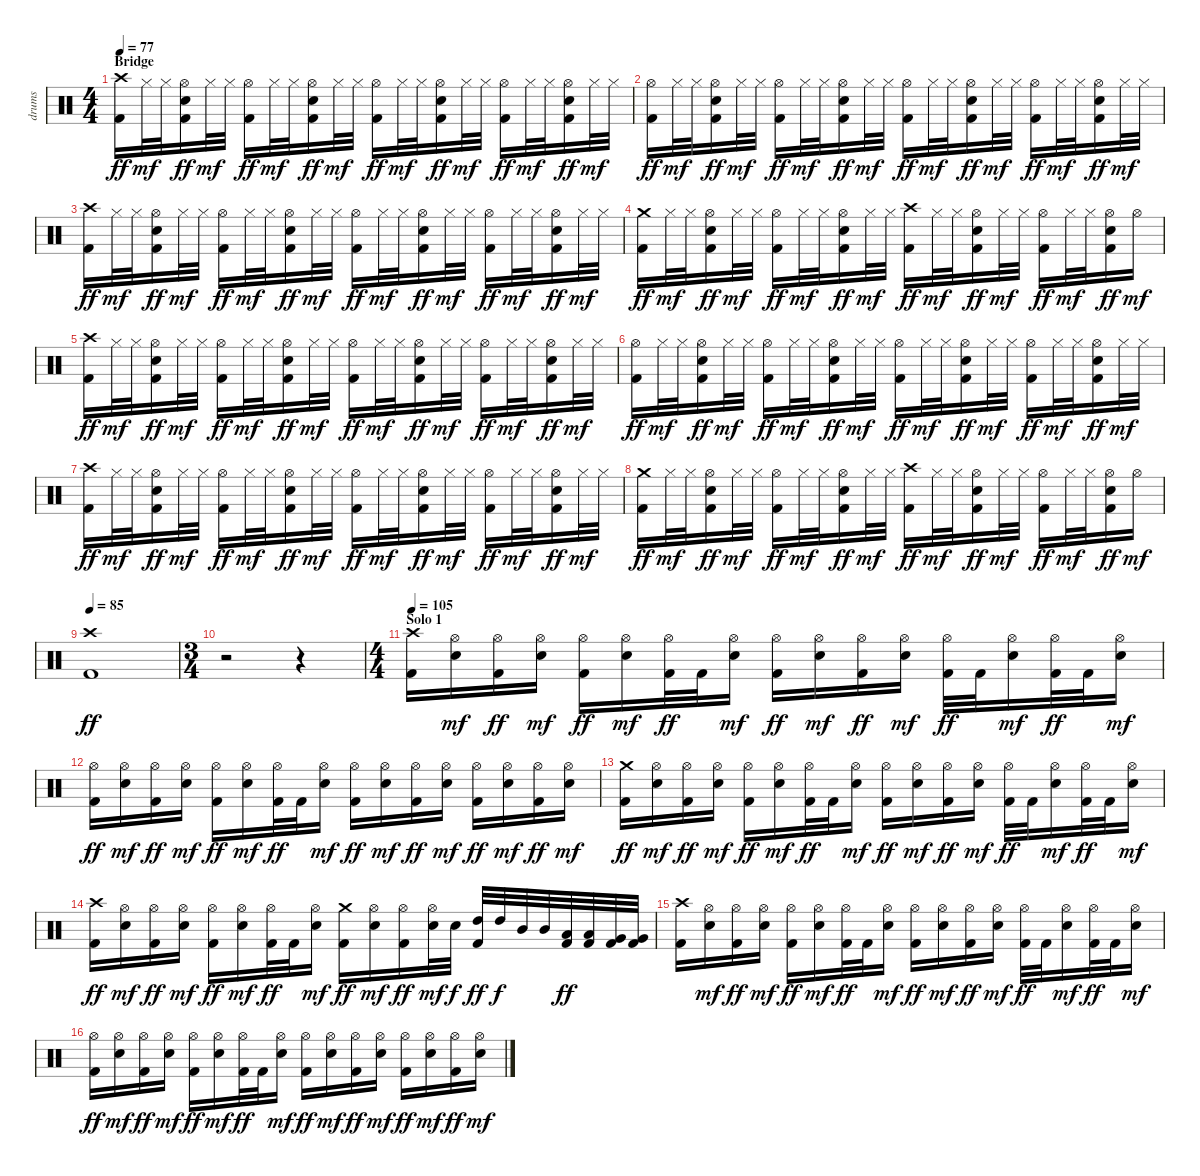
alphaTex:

\track ("drums" "drums") {instrument percussion}
\staff {score}
\articulation defaults
\ts (4 4)
\section ("" "Bridge")
\tempo 77
\clef neutral
\ks c
("Crash high (hit)" "Kick (hit) 2").16{dy ff} "Hi-Hat (closed)".32{dy mf} "Hi-Hat (closed)".32 ("Hi-Hat (open)" "Snare (hit) 2" "Kick (hit) 2").16{dy ff} "Hi-Hat (closed)".32{dy mf} "Hi-Hat (closed)".32 ("Hi-Hat (open)" "Kick (hit) 2").16{dy ff} "Hi-Hat (closed)".32{dy mf} "Hi-Hat (closed)".32 ("Hi-Hat (open)" "Snare (hit) 2" "Kick (hit) 2").16{dy ff} "Hi-Hat (closed)".32{dy mf} "Hi-Hat (closed)".32 ("Hi-Hat (open)" "Kick (hit) 2").16{dy ff} "Hi-Hat (closed)".32{dy mf} "Hi-Hat (closed)".32 ("Hi-Hat (open)" "Snare (hit) 2" "Kick (hit) 2").16{dy ff} "Hi-Hat (closed)".32{dy mf} "Hi-Hat (closed)".32 ("Hi-Hat (open)" "Kick (hit) 2").16{dy ff} "Hi-Hat (closed)".32{dy mf} "Hi-Hat (closed)".32 ("Hi-Hat (open)" "Snare (hit) 2" "Kick (hit) 2").16{dy ff} "Hi-Hat (closed)".32{dy mf} "Hi-Hat (closed)".32 |
("Hi-Hat (open)" "Kick (hit) 2").16{dy ff} "Hi-Hat (closed)".32{dy mf} "Hi-Hat (closed)".32 ("Hi-Hat (open)" "Snare (hit) 2" "Kick (hit) 2").16{dy ff} "Hi-Hat (closed)".32{dy mf} "Hi-Hat (closed)".32 ("Hi-Hat (open)" "Kick (hit) 2").16{dy ff} "Hi-Hat (closed)".32{dy mf} "Hi-Hat (closed)".32 ("Hi-Hat (open)" "Snare (hit) 2" "Kick (hit) 2").16{dy ff} "Hi-Hat (closed)".32{dy mf} "Hi-Hat (closed)".32 ("Hi-Hat (open)" "Kick (hit) 2").16{dy ff} "Hi-Hat (closed)".32{dy mf} "Hi-Hat (closed)".32 ("Hi-Hat (open)" "Snare (hit) 2" "Kick (hit) 2").16{dy ff} "Hi-Hat (closed)".32{dy mf} "Hi-Hat (closed)".32 ("Hi-Hat (open)" "Kick (hit) 2").16{dy ff} "Hi-Hat (closed)".32{dy mf} "Hi-Hat (closed)".32 ("Hi-Hat (open)" "Snare (hit) 2" "Kick (hit) 2").16{dy ff} "Hi-Hat (closed)".32{dy mf} "Hi-Hat (closed)".32 |
("Crash high (hit)" "Kick (hit) 2").16{dy ff} "Hi-Hat (closed)".32{dy mf} "Hi-Hat (closed)".32 ("Hi-Hat (open)" "Snare (hit) 2" "Kick (hit) 2").16{dy ff} "Hi-Hat (closed)".32{dy mf} "Hi-Hat (closed)".32 ("Hi-Hat (open)" "Kick (hit) 2").16{dy ff} "Hi-Hat (closed)".32{dy mf} "Hi-Hat (closed)".32 ("Hi-Hat (open)" "Snare (hit) 2" "Kick (hit) 2").16{dy ff} "Hi-Hat (closed)".32{dy mf} "Hi-Hat (closed)".32 ("Hi-Hat (open)" "Kick (hit) 2").16{dy ff} "Hi-Hat (closed)".32{dy mf} "Hi-Hat (closed)".32 ("Hi-Hat (open)" "Snare (hit) 2" "Kick (hit) 2").16{dy ff} "Hi-Hat (closed)".32{dy mf} "Hi-Hat (closed)".32 ("Hi-Hat (open)" "Kick (hit) 2").16{dy ff} "Hi-Hat (closed)".32{dy mf} "Hi-Hat (closed)".32 ("Hi-Hat (open)" "Snare (hit) 2" "Kick (hit) 2").16{dy ff} "Hi-Hat (closed)".32{dy mf} "Hi-Hat (closed)".32 |
("Crash medium (hit)" "Kick (hit) 2").16{dy ff} "Hi-Hat (closed)".32{dy mf} "Hi-Hat (closed)".32 ("Hi-Hat (open)" "Snare (hit) 2" "Kick (hit) 2").16{dy ff} "Hi-Hat (closed)".32{dy mf} "Hi-Hat (closed)".32 ("Hi-Hat (open)" "Kick (hit) 2").16{dy ff} "Hi-Hat (closed)".32{dy mf} "Hi-Hat (closed)".32 ("Hi-Hat (open)" "Snare (hit) 2" "Kick (hit) 2").16{dy ff} "Hi-Hat (closed)".32{dy mf} "Hi-Hat (closed)".32 ("Crash high (hit)" "Kick (hit) 2").16{dy ff} "Hi-Hat (closed)".32{dy mf} "Hi-Hat (closed)".32 ("Hi-Hat (open)" "Snare (hit) 2" "Kick (hit) 2").16{dy ff} "Hi-Hat (closed)".32{dy mf} "Hi-Hat (closed)".32 ("Hi-Hat (open)" "Kick (hit) 2").16{dy ff} "Hi-Hat (closed)".32{dy mf} "Hi-Hat (closed)".32 ("Hi-Hat (open)" "Snare (hit) 2" "Kick (hit) 2").16{dy ff} "Hi-Hat (open)".16{dy mf} |
("Crash high (hit)" "Kick (hit) 2").16{dy ff} "Hi-Hat (closed)".32{dy mf} "Hi-Hat (closed)".32 ("Hi-Hat (open)" "Snare (hit) 2" "Kick (hit) 2").16{dy ff} "Hi-Hat (closed)".32{dy mf} "Hi-Hat (closed)".32 ("Hi-Hat (open)" "Kick (hit) 2").16{dy ff} "Hi-Hat (closed)".32{dy mf} "Hi-Hat (closed)".32 ("Hi-Hat (open)" "Snare (hit) 2" "Kick (hit) 2").16{dy ff} "Hi-Hat (closed)".32{dy mf} "Hi-Hat (closed)".32 ("Hi-Hat (open)" "Kick (hit) 2").16{dy ff} "Hi-Hat (closed)".32{dy mf} "Hi-Hat (closed)".32 ("Hi-Hat (open)" "Snare (hit) 2" "Kick (hit) 2").16{dy ff} "Hi-Hat (closed)".32{dy mf} "Hi-Hat (closed)".32 ("Hi-Hat (open)" "Kick (hit) 2").16{dy ff} "Hi-Hat (closed)".32{dy mf} "Hi-Hat (closed)".32 ("Hi-Hat (open)" "Snare (hit) 2" "Kick (hit) 2").16{dy ff} "Hi-Hat (closed)".32{dy mf} "Hi-Hat (closed)".32 |
("Hi-Hat (open)" "Kick (hit) 2").16{dy ff} "Hi-Hat (closed)".32{dy mf} "Hi-Hat (closed)".32 ("Hi-Hat (open)" "Snare (hit) 2" "Kick (hit) 2").16{dy ff} "Hi-Hat (closed)".32{dy mf} "Hi-Hat (closed)".32 ("Hi-Hat (open)" "Kick (hit) 2").16{dy ff} "Hi-Hat (closed)".32{dy mf} "Hi-Hat (closed)".32 ("Hi-Hat (open)" "Snare (hit) 2" "Kick (hit) 2").16{dy ff} "Hi-Hat (closed)".32{dy mf} "Hi-Hat (closed)".32 ("Hi-Hat (open)" "Kick (hit) 2").16{dy ff} "Hi-Hat (closed)".32{dy mf} "Hi-Hat (closed)".32 ("Hi-Hat (open)" "Snare (hit) 2" "Kick (hit) 2").16{dy ff} "Hi-Hat (closed)".32{dy mf} "Hi-Hat (closed)".32 ("Hi-Hat (open)" "Kick (hit) 2").16{dy ff} "Hi-Hat (closed)".32{dy mf} "Hi-Hat (closed)".32 ("Hi-Hat (open)" "Snare (hit) 2" "Kick (hit) 2").16{dy ff} "Hi-Hat (closed)".32{dy mf} "Hi-Hat (closed)".32 |
("Crash high (hit)" "Kick (hit) 2").16{dy ff} "Hi-Hat (closed)".32{dy mf} "Hi-Hat (closed)".32 ("Hi-Hat (open)" "Snare (hit) 2" "Kick (hit) 2").16{dy ff} "Hi-Hat (closed)".32{dy mf} "Hi-Hat (closed)".32 ("Hi-Hat (open)" "Kick (hit) 2").16{dy ff} "Hi-Hat (closed)".32{dy mf} "Hi-Hat (closed)".32 ("Hi-Hat (open)" "Snare (hit) 2" "Kick (hit) 2").16{dy ff} "Hi-Hat (closed)".32{dy mf} "Hi-Hat (closed)".32 ("Hi-Hat (open)" "Kick (hit) 2").16{dy ff} "Hi-Hat (closed)".32{dy mf} "Hi-Hat (closed)".32 ("Hi-Hat (open)" "Snare (hit) 2" "Kick (hit) 2").16{dy ff} "Hi-Hat (closed)".32{dy mf} "Hi-Hat (closed)".32 ("Hi-Hat (open)" "Kick (hit) 2").16{dy ff} "Hi-Hat (closed)".32{dy mf} "Hi-Hat (closed)".32 ("Hi-Hat (open)" "Snare (hit) 2" "Kick (hit) 2").16{dy ff} "Hi-Hat (closed)".32{dy mf} "Hi-Hat (closed)".32 |
("Crash medium (hit)" "Kick (hit) 2").16{dy ff} "Hi-Hat (closed)".32{dy mf} "Hi-Hat (closed)".32 ("Hi-Hat (open)" "Snare (hit) 2" "Kick (hit) 2").16{dy ff} "Hi-Hat (closed)".32{dy mf} "Hi-Hat (closed)".32 ("Hi-Hat (open)" "Kick (hit) 2").16{dy ff} "Hi-Hat (closed)".32{dy mf} "Hi-Hat (closed)".32 ("Hi-Hat (open)" "Snare (hit) 2" "Kick (hit) 2").16{dy ff} "Hi-Hat (closed)".32{dy mf} "Hi-Hat (closed)".32 ("Crash high (hit)" "Kick (hit) 2").16{dy ff} "Hi-Hat (closed)".32{dy mf} "Hi-Hat (closed)".32 ("Hi-Hat (open)" "Snare (hit) 2" "Kick (hit) 2").16{dy ff} "Hi-Hat (closed)".32{dy mf} "Hi-Hat (closed)".32 ("Hi-Hat (open)" "Kick (hit) 2").16{dy ff} "Hi-Hat (closed)".32{dy mf} "Hi-Hat (closed)".32 ("Hi-Hat (open)" "Snare (hit) 2" "Kick (hit) 2").16{dy ff} "Hi-Hat (open)".16{dy mf} |
\tempo 85
("Crash high (hit)" "Kick (hit) 2").1{dy ff} |
\ts (3 4)
r.2 r.4 |
\ts (4 4)
\section ("" "Solo 1")
\tempo 105
("Crash high (hit)" "Kick (hit) 2").16 ("Hi-Hat (open)" "Snare (hit) 2").16{dy mf} ("Hi-Hat (open)" "Kick (hit) 2").16{dy ff} ("Hi-Hat (open)" "Snare (hit) 2").16{dy mf} ("Hi-Hat (open)" "Kick (hit) 2").16{dy ff} ("Hi-Hat (open)" "Snare (hit) 2").16{dy mf} ("Hi-Hat (open)" "Kick (hit) 2").32{dy ff} "Kick (hit) 2".32 ("Hi-Hat (open)" "Snare (hit) 2").16{dy mf} ("Hi-Hat (open)" "Kick (hit) 2").16{dy ff} ("Hi-Hat (open)" "Snare (hit) 2").16{dy mf} ("Hi-Hat (open)" "Kick (hit) 2").16{dy ff} ("Hi-Hat (open)" "Snare (hit) 2").16{dy mf} ("Hi-Hat (open)" "Kick (hit) 2").32{dy ff} "Kick (hit) 2".32 ("Hi-Hat (open)" "Snare (hit) 2").16{dy mf} ("Hi-Hat (open)" "Kick (hit) 2").32{dy ff} "Kick (hit) 2".32 ("Hi-Hat (open)" "Snare (hit) 2").16{dy mf} |
("Hi-Hat (open)" "Kick (hit) 2").16{dy ff} ("Hi-Hat (open)" "Snare (hit) 2").16{dy mf} ("Hi-Hat (open)" "Kick (hit) 2").16{dy ff} ("Hi-Hat (open)" "Snare (hit) 2").16{dy mf} ("Hi-Hat (open)" "Kick (hit) 2").16{dy ff} ("Hi-Hat (open)" "Snare (hit) 2").16{dy mf} ("Hi-Hat (open)" "Kick (hit) 2").32{dy ff} "Kick (hit) 2".32 ("Hi-Hat (open)" "Snare (hit) 2").16{dy mf} ("Hi-Hat (open)" "Kick (hit) 2").16{dy ff} ("Hi-Hat (open)" "Snare (hit) 2").16{dy mf} ("Hi-Hat (open)" "Kick (hit) 2").16{dy ff} ("Hi-Hat (open)" "Snare (hit) 2").16{dy mf} ("Hi-Hat (open)" "Kick (hit) 2").16{dy ff} ("Hi-Hat (open)" "Snare (hit) 2").16{dy mf} ("Hi-Hat (open)" "Kick (hit) 2").16{dy ff} ("Hi-Hat (open)" "Snare (hit) 2").16{dy mf} |
("Crash medium (hit)" "Kick (hit) 2").16{dy ff} ("Hi-Hat (open)" "Snare (hit) 2").16{dy mf} ("Hi-Hat (open)" "Kick (hit) 2").16{dy ff} ("Hi-Hat (open)" "Snare (hit) 2").16{dy mf} ("Hi-Hat (open)" "Kick (hit) 2").16{dy ff} ("Hi-Hat (open)" "Snare (hit) 2").16{dy mf} ("Hi-Hat (open)" "Kick (hit) 2").32{dy ff} "Kick (hit) 2".32 ("Hi-Hat (open)" "Snare (hit) 2").16{dy mf} ("Hi-Hat (open)" "Kick (hit) 2").16{dy ff} ("Hi-Hat (open)" "Snare (hit) 2").16{dy mf} ("Hi-Hat (open)" "Kick (hit) 2").16{dy ff} ("Hi-Hat (open)" "Snare (hit) 2").16{dy mf} ("Hi-Hat (open)" "Kick (hit) 2").32{dy ff} "Kick (hit) 2".32 ("Hi-Hat (open)" "Snare (hit) 2").16{dy mf} ("Hi-Hat (open)" "Kick (hit) 2").32{dy ff} "Kick (hit) 2".32 ("Hi-Hat (open)" "Snare (hit) 2").16{dy mf} |
("Crash high (hit)" "Kick (hit) 2").16{dy ff} ("Hi-Hat (open)" "Snare (hit) 2").16{dy mf} ("Hi-Hat (open)" "Kick (hit) 2").16{dy ff} ("Hi-Hat (open)" "Snare (hit) 2").16{dy mf} ("Hi-Hat (open)" "Kick (hit) 2").16{dy ff} ("Hi-Hat (open)" "Snare (hit) 2").16{dy mf} ("Hi-Hat (open)" "Kick (hit) 2").32{dy ff} "Kick (hit) 2".32 ("Hi-Hat (open)" "Snare (hit) 2").16{dy mf} ("Crash medium (hit)" "Kick (hit) 2").16{dy ff} ("Hi-Hat (open)" "Snare (hit) 2").16{dy mf} ("Hi-Hat (open)" "Kick (hit) 2").16{dy ff} ("Hi-Hat (open)" "Snare (hit) 2").32{dy mf} "Snare (hit) 2".32{dy f} ("High Tom (hit)" "Kick (hit) 2").32{dy ff} "High Tom (hit)".32{dy f} "Mid Tom (hit)".32 "Mid Tom (hit)".32 ("Low Tom (hit)" "Kick (hit) 2").32{dy ff} ("Low Tom (hit)" "Kick (hit) 2").32 ("Very Low Tom (hit)" "Kick (hit) 2").32 ("Very Low Tom (hit)" "Kick (hit) 2").32 |
("Crash high (hit)" "Kick (hit) 2").16 ("Hi-Hat (open)" "Snare (hit) 2").16{dy mf} ("Hi-Hat (open)" "Kick (hit) 2").16{dy ff} ("Hi-Hat (open)" "Snare (hit) 2").16{dy mf} ("Hi-Hat (open)" "Kick (hit) 2").16{dy ff} ("Hi-Hat (open)" "Snare (hit) 2").16{dy mf} ("Hi-Hat (open)" "Kick (hit) 2").32{dy ff} "Kick (hit) 2".32 ("Hi-Hat (open)" "Snare (hit) 2").16{dy mf} ("Hi-Hat (open)" "Kick (hit) 2").16{dy ff} ("Hi-Hat (open)" "Snare (hit) 2").16{dy mf} ("Hi-Hat (open)" "Kick (hit) 2").16{dy ff} ("Hi-Hat (open)" "Snare (hit) 2").16{dy mf} ("Hi-Hat (open)" "Kick (hit) 2").32{dy ff} "Kick (hit) 2".32 ("Hi-Hat (open)" "Snare (hit) 2").16{dy mf} ("Hi-Hat (open)" "Kick (hit) 2").32{dy ff} "Kick (hit) 2".32 ("Hi-Hat (open)" "Snare (hit) 2").16{dy mf} |
("Hi-Hat (open)" "Kick (hit) 2").16{dy ff} ("Hi-Hat (open)" "Snare (hit) 2").16{dy mf} ("Hi-Hat (open)" "Kick (hit) 2").16{dy ff} ("Hi-Hat (open)" "Snare (hit) 2").16{dy mf} ("Hi-Hat (open)" "Kick (hit) 2").16{dy ff} ("Hi-Hat (open)" "Snare (hit) 2").16{dy mf} ("Hi-Hat (open)" "Kick (hit) 2").32{dy ff} "Kick (hit) 2".32 ("Hi-Hat (open)" "Snare (hit) 2").16{dy mf} ("Hi-Hat (open)" "Kick (hit) 2").16{dy ff} ("Hi-Hat (open)" "Snare (hit) 2").16{dy mf} ("Hi-Hat (open)" "Kick (hit) 2").16{dy ff} ("Hi-Hat (open)" "Snare (hit) 2").16{dy mf} ("Hi-Hat (open)" "Kick (hit) 2").16{dy ff} ("Hi-Hat (open)" "Snare (hit) 2").16{dy mf} ("Hi-Hat (open)" "Kick (hit) 2").16{dy ff} ("Hi-Hat (open)" "Snare (hit) 2").16{dy mf}
